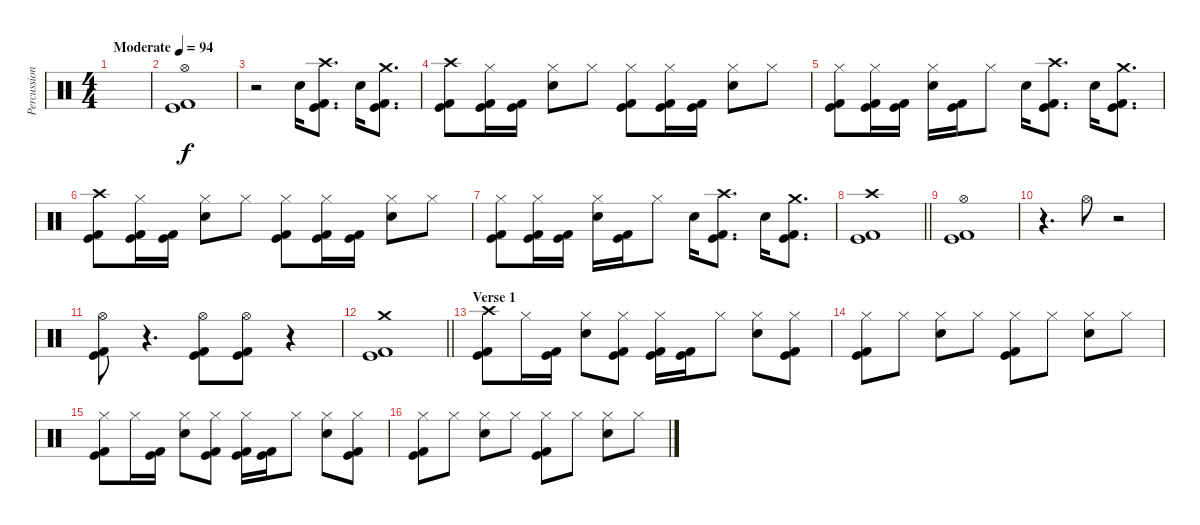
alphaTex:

\track ("Percussion" "Percussion") {instrument percussion}
\staff {score}
\articulation defaults
\ts (4 4)
\tempo (94 "Moderate")
\clef neutral
\ks c
|
("Hi-Hat (open)" "Kick (hit)" "Kick (hit) 2").1 |
r.2 "Electric Snare (hit)".16 ("Crash high (hit)" "Kick (hit)" "Kick (hit) 2").8{d} "Electric Snare (hit)".16 ("Crash medium (hit)" "Kick (hit)" "Kick (hit) 2").8{d} |
("Crash high (hit)" "Kick (hit)" "Kick (hit) 2").8 ("Hi-Hat (closed)" "Kick (hit)" "Kick (hit) 2").16 ("Kick (hit)" "Kick (hit) 2").16 ("Hi-Hat (closed)" "Electric Snare (hit)").8 "Hi-Hat (closed)".8 ("Hi-Hat (closed)" "Kick (hit)" "Kick (hit) 2").8 ("Hi-Hat (closed)" "Kick (hit)" "Kick (hit) 2").16 ("Kick (hit)" "Kick (hit) 2").16 ("Hi-Hat (closed)" "Electric Snare (hit)").8 "Hi-Hat (closed)".8 |
("Hi-Hat (closed)" "Kick (hit)" "Kick (hit) 2").8 ("Hi-Hat (closed)" "Kick (hit)" "Kick (hit) 2").16 ("Kick (hit)" "Kick (hit) 2").16 ("Hi-Hat (closed)" "Electric Snare (hit)").16 ("Kick (hit)" "Kick (hit) 2").16 "Hi-Hat (closed)".8 "Electric Snare (hit)".16 ("Crash high (hit)" "Kick (hit)" "Kick (hit) 2").8{d} "Electric Snare (hit)".16 ("Crash medium (hit)" "Kick (hit)" "Kick (hit) 2").8{d} |
("Crash high (hit)" "Kick (hit)" "Kick (hit) 2").8 ("Hi-Hat (closed)" "Kick (hit)" "Kick (hit) 2").16 ("Kick (hit)" "Kick (hit) 2").16 ("Hi-Hat (closed)" "Electric Snare (hit)").8 "Hi-Hat (closed)".8 ("Hi-Hat (closed)" "Kick (hit)" "Kick (hit) 2").8 ("Hi-Hat (closed)" "Kick (hit)" "Kick (hit) 2").16 ("Kick (hit)" "Kick (hit) 2").16 ("Hi-Hat (closed)" "Electric Snare (hit)").8 "Hi-Hat (closed)".8 |
("Hi-Hat (closed)" "Kick (hit)" "Kick (hit) 2").8 ("Hi-Hat (closed)" "Kick (hit)" "Kick (hit) 2").16 ("Kick (hit)" "Kick (hit) 2").16 ("Hi-Hat (closed)" "Electric Snare (hit)").16 ("Kick (hit)" "Kick (hit) 2").16 "Hi-Hat (closed)".8 "Electric Snare (hit)".16 ("Crash high (hit)" "Kick (hit)" "Kick (hit) 2").8{d} "Electric Snare (hit)".16 ("Crash medium (hit)" "Kick (hit)" "Kick (hit) 2").8{d} |
\barLineRight lightlight
("Crash high (hit)" "Kick (hit)" "Kick (hit) 2").1 |
\section ("" "")
("Hi-Hat (open)" "Kick (hit)" "Kick (hit) 2").1 |
r.4{d} "Hi-Hat (open)".8 r.2 |
("Hi-Hat (open)" "Kick (hit)" "Kick (hit) 2").8 r.4{d} ("Hi-Hat (open)" "Kick (hit)" "Kick (hit) 2").8 ("Hi-Hat (open)" "Kick (hit)" "Kick (hit) 2").8 r.4 |
\barLineRight lightlight
("Crash medium (hit)" "Kick (hit)" "Kick (hit) 2").1 |
\section ("" "Verse 1")
("Crash high (hit)" "Kick (hit)" "Kick (hit) 2").8 "Hi-Hat (closed)".16 ("Kick (hit)" "Kick (hit) 2").16 ("Hi-Hat (closed)" "Electric Snare (hit)").8 ("Hi-Hat (closed)" "Kick (hit)" "Kick (hit) 2").8 ("Hi-Hat (closed)" "Kick (hit)" "Kick (hit) 2").16 ("Kick (hit)" "Kick (hit) 2").16 "Hi-Hat (closed)".8 ("Hi-Hat (closed)" "Electric Snare (hit)").8 ("Hi-Hat (closed)" "Kick (hit)" "Kick (hit) 2").8 |
("Hi-Hat (closed)" "Kick (hit)" "Kick (hit) 2").8 "Hi-Hat (closed)".8 ("Hi-Hat (closed)" "Electric Snare (hit)").8 "Hi-Hat (closed)".8 ("Hi-Hat (closed)" "Kick (hit)" "Kick (hit) 2").8 "Hi-Hat (closed)".8 ("Hi-Hat (closed)" "Electric Snare (hit)").8 "Hi-Hat (closed)".8 |
("Hi-Hat (closed)" "Kick (hit)" "Kick (hit) 2").8 "Hi-Hat (closed)".16 ("Kick (hit)" "Kick (hit) 2").16 ("Hi-Hat (closed)" "Electric Snare (hit)").8 ("Hi-Hat (closed)" "Kick (hit)" "Kick (hit) 2").8 ("Hi-Hat (closed)" "Kick (hit)" "Kick (hit) 2").16 ("Kick (hit)" "Kick (hit) 2").16 "Hi-Hat (closed)".8 ("Hi-Hat (closed)" "Electric Snare (hit)").8 ("Hi-Hat (closed)" "Kick (hit)" "Kick (hit) 2").8 |
("Hi-Hat (closed)" "Kick (hit)" "Kick (hit) 2").8 "Hi-Hat (closed)".8 ("Hi-Hat (closed)" "Electric Snare (hit)").8 "Hi-Hat (closed)".8 ("Hi-Hat (closed)" "Kick (hit)" "Kick (hit) 2").8 "Hi-Hat (closed)".8 ("Hi-Hat (closed)" "Electric Snare (hit)").8 "Hi-Hat (closed)".8
